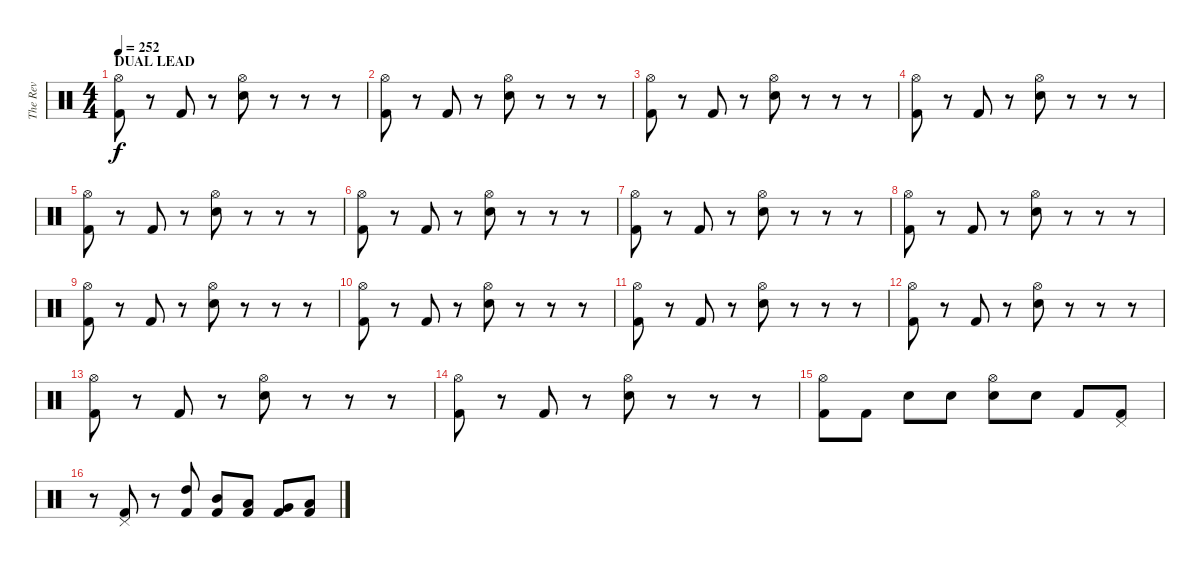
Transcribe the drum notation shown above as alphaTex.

\track ("The Rev" "The Rev") {instrument percussion}
\staff {score}
\articulation defaults
\ts (4 4)
\section ("" "DUAL LEAD")
\tempo 252
\clef neutral
\ks c
("Hi-Hat (open)" "Kick (hit) 2").8{dy f} r.8 "Kick (hit) 2".8 r.8 ("Hi-Hat (open)" "Electric Snare (hit)").8 r.8 r.8 r.8 |
("Hi-Hat (open)" "Kick (hit) 2").8 r.8 "Kick (hit) 2".8 r.8 ("Hi-Hat (open)" "Electric Snare (hit)").8 r.8 r.8 r.8 |
("Hi-Hat (open)" "Kick (hit) 2").8 r.8 "Kick (hit) 2".8 r.8 ("Hi-Hat (open)" "Electric Snare (hit)").8 r.8 r.8 r.8 |
("Hi-Hat (open)" "Kick (hit) 2").8 r.8 "Kick (hit) 2".8 r.8 ("Hi-Hat (open)" "Electric Snare (hit)").8 r.8 r.8 r.8 |
("Hi-Hat (open)" "Kick (hit) 2").8 r.8 "Kick (hit) 2".8 r.8 ("Hi-Hat (open)" "Electric Snare (hit)").8 r.8 r.8 r.8 |
("Hi-Hat (open)" "Kick (hit) 2").8 r.8 "Kick (hit) 2".8 r.8 ("Hi-Hat (open)" "Electric Snare (hit)").8 r.8 r.8 r.8 |
("Hi-Hat (open)" "Kick (hit) 2").8 r.8 "Kick (hit) 2".8 r.8 ("Hi-Hat (open)" "Electric Snare (hit)").8 r.8 r.8 r.8 |
("Hi-Hat (open)" "Kick (hit) 2").8 r.8 "Kick (hit) 2".8 r.8 ("Hi-Hat (open)" "Electric Snare (hit)").8 r.8 r.8 r.8 |
("Hi-Hat (open)" "Kick (hit) 2").8 r.8 "Kick (hit) 2".8 r.8 ("Hi-Hat (open)" "Electric Snare (hit)").8 r.8 r.8 r.8 |
("Hi-Hat (open)" "Kick (hit) 2").8 r.8 "Kick (hit) 2".8 r.8 ("Hi-Hat (open)" "Electric Snare (hit)").8 r.8 r.8 r.8 |
("Hi-Hat (open)" "Kick (hit) 2").8 r.8 "Kick (hit) 2".8 r.8 ("Hi-Hat (open)" "Electric Snare (hit)").8 r.8 r.8 r.8 |
("Hi-Hat (open)" "Kick (hit) 2").8 r.8 "Kick (hit) 2".8 r.8 ("Hi-Hat (open)" "Electric Snare (hit)").8 r.8 r.8 r.8 |
("Hi-Hat (open)" "Kick (hit) 2").8 r.8 "Kick (hit) 2".8 r.8 ("Hi-Hat (open)" "Electric Snare (hit)").8 r.8 r.8 r.8 |
("Hi-Hat (open)" "Kick (hit) 2").8 r.8 "Kick (hit) 2".8 r.8 ("Hi-Hat (open)" "Electric Snare (hit)").8 r.8 r.8 r.8 |
("Hi-Hat (open)" "Kick (hit) 2").8 "Kick (hit) 2".8 "Electric Snare (hit)".8 "Electric Snare (hit)".8 ("Hi-Hat (open)" "Electric Snare (hit)").8 "Electric Snare (hit)".8 "Kick (hit) 2".8 ("Pedal Hi-Hat (hit)" "Kick (hit) 2").8 |
r.8 ("Pedal Hi-Hat (hit)" "Kick (hit) 2").8 r.8 ("High Tom (hit)" "Kick (hit) 2").8 ("Mid Tom (hit)" "Kick (hit) 2").8 ("Low Tom (hit)" "Kick (hit) 2").8 ("Very Low Tom (hit)" "Kick (hit) 2").8 ("Low Floor Tom (hit)" "Kick (hit) 2").8
